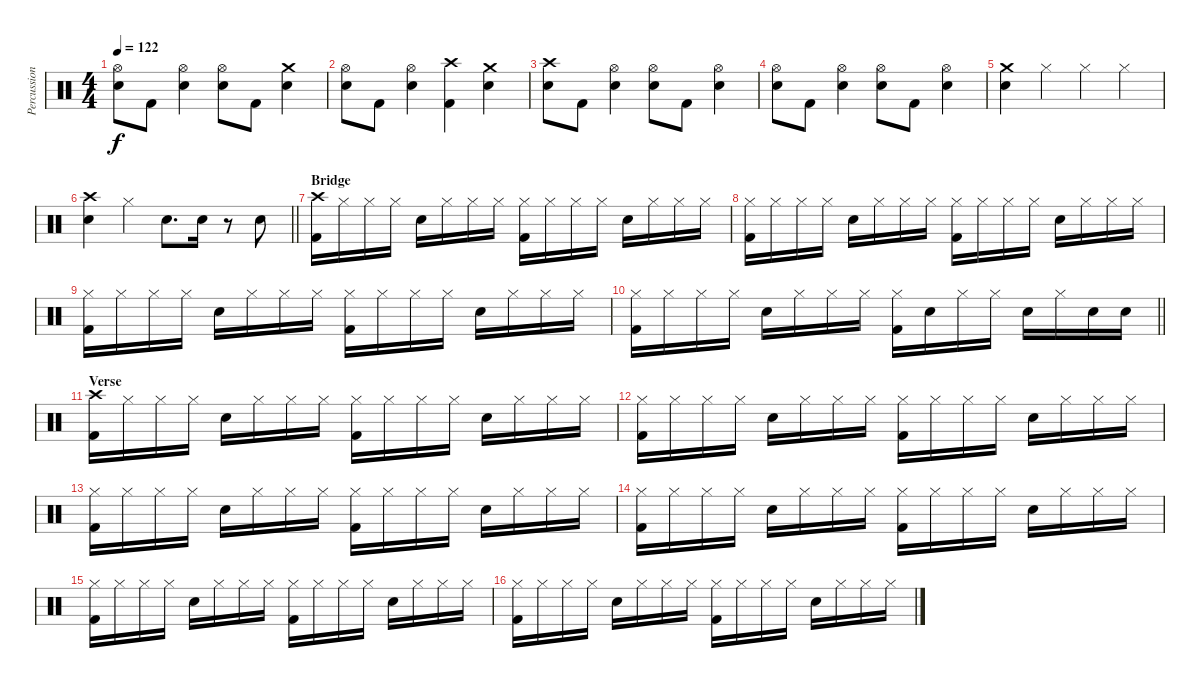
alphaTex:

\track ("Percussion" "Percussion") {instrument percussion}
\staff {score}
\articulation defaults
\ts (4 4)
\tempo 122
\clef neutral
\ks c
("Hi-Hat (open)" "Electric Snare (hit)").8{dy f} "Kick (hit) 2".8 ("Hi-Hat (open)" "Electric Snare (hit)").4 ("Hi-Hat (open)" "Electric Snare (hit)").8 "Kick (hit) 2".8 ("Crash medium (hit)" "Electric Snare (hit)").4 |
("Hi-Hat (open)" "Electric Snare (hit)").8 "Kick (hit) 2".8 ("Hi-Hat (open)" "Electric Snare (hit)").4 ("Crash high (hit)" "Kick (hit) 2").4 ("Crash medium (hit)" "Electric Snare (hit)").4 |
("Crash high (hit)" "Electric Snare (hit)").8 "Kick (hit) 2".8 ("Hi-Hat (open)" "Electric Snare (hit)").4 ("Hi-Hat (open)" "Electric Snare (hit)").8 "Kick (hit) 2".8 ("Hi-Hat (open)" "Electric Snare (hit)").4 |
("Hi-Hat (open)" "Electric Snare (hit)").8 "Kick (hit) 2".8 ("Hi-Hat (open)" "Electric Snare (hit)").4 ("Hi-Hat (open)" "Electric Snare (hit)").8 "Kick (hit) 2".8 ("Hi-Hat (open)" "Electric Snare (hit)").4 |
("Crash medium (hit)" "Electric Snare (hit)").4 "Hi-Hat (closed)".4 "Hi-Hat (closed)".4 "Hi-Hat (closed)".4 |
\barLineRight lightlight
("Crash high (hit)" "Electric Snare (hit)").4 "Hi-Hat (closed)".4 "Electric Snare (hit)".8{d} "Electric Snare (hit)".16 r.8 "Electric Snare (hit)".8 |
\section ("" "Bridge")
("Crash high (hit)" "Kick (hit) 2").16 "Hi-Hat (closed)".16 "Hi-Hat (closed)".16 "Hi-Hat (closed)".16 "Electric Snare (hit)".16 "Hi-Hat (closed)".16 "Hi-Hat (closed)".16 "Hi-Hat (closed)".16 ("Hi-Hat (closed)" "Kick (hit) 2").16 "Hi-Hat (closed)".16 "Hi-Hat (closed)".16 "Hi-Hat (closed)".16 "Electric Snare (hit)".16 "Hi-Hat (closed)".16 "Hi-Hat (closed)".16 "Hi-Hat (closed)".16 |
("Hi-Hat (closed)" "Kick (hit) 2").16 "Hi-Hat (closed)".16 "Hi-Hat (closed)".16 "Hi-Hat (closed)".16 "Electric Snare (hit)".16 "Hi-Hat (closed)".16 "Hi-Hat (closed)".16 "Hi-Hat (closed)".16 ("Hi-Hat (closed)" "Kick (hit) 2").16 "Hi-Hat (closed)".16 "Hi-Hat (closed)".16 "Hi-Hat (closed)".16 "Electric Snare (hit)".16 "Hi-Hat (closed)".16 "Hi-Hat (closed)".16 "Hi-Hat (closed)".16 |
("Hi-Hat (closed)" "Kick (hit) 2").16 "Hi-Hat (closed)".16 "Hi-Hat (closed)".16 "Hi-Hat (closed)".16 "Electric Snare (hit)".16 "Hi-Hat (closed)".16 "Hi-Hat (closed)".16 "Hi-Hat (closed)".16 ("Hi-Hat (closed)" "Kick (hit) 2").16 "Hi-Hat (closed)".16 "Hi-Hat (closed)".16 "Hi-Hat (closed)".16 "Electric Snare (hit)".16 "Hi-Hat (closed)".16 "Hi-Hat (closed)".16 "Hi-Hat (closed)".16 |
\barLineRight lightlight
("Hi-Hat (closed)" "Kick (hit) 2").16 "Hi-Hat (closed)".16 "Hi-Hat (closed)".16 "Hi-Hat (closed)".16 "Electric Snare (hit)".16 "Hi-Hat (closed)".16 "Hi-Hat (closed)".16 "Hi-Hat (closed)".16 ("Hi-Hat (closed)" "Kick (hit) 2").16 "Electric Snare (hit)".16 "Hi-Hat (closed)".16 "Hi-Hat (closed)".16 "Electric Snare (hit)".16 "Hi-Hat (closed)".16 "Electric Snare (hit)".16 "Electric Snare (hit)".16 |
\section ("" "Verse")
("Crash high (hit)" "Kick (hit) 2").16 "Hi-Hat (closed)".16 "Hi-Hat (closed)".16 "Hi-Hat (closed)".16 "Electric Snare (hit)".16 "Hi-Hat (closed)".16 "Hi-Hat (closed)".16 "Hi-Hat (closed)".16 ("Hi-Hat (closed)" "Kick (hit) 2").16 "Hi-Hat (closed)".16 "Hi-Hat (closed)".16 "Hi-Hat (closed)".16 "Electric Snare (hit)".16 "Hi-Hat (closed)".16 "Hi-Hat (closed)".16 "Hi-Hat (closed)".16 |
("Hi-Hat (closed)" "Kick (hit) 2").16 "Hi-Hat (closed)".16 "Hi-Hat (closed)".16 "Hi-Hat (closed)".16 "Electric Snare (hit)".16 "Hi-Hat (closed)".16 "Hi-Hat (closed)".16 "Hi-Hat (closed)".16 ("Hi-Hat (closed)" "Kick (hit) 2").16 "Hi-Hat (closed)".16 "Hi-Hat (closed)".16 "Hi-Hat (closed)".16 "Electric Snare (hit)".16 "Hi-Hat (closed)".16 "Hi-Hat (closed)".16 "Hi-Hat (closed)".16 |
("Hi-Hat (closed)" "Kick (hit) 2").16 "Hi-Hat (closed)".16 "Hi-Hat (closed)".16 "Hi-Hat (closed)".16 "Electric Snare (hit)".16 "Hi-Hat (closed)".16 "Hi-Hat (closed)".16 "Hi-Hat (closed)".16 ("Hi-Hat (closed)" "Kick (hit) 2").16 "Hi-Hat (closed)".16 "Hi-Hat (closed)".16 "Hi-Hat (closed)".16 "Electric Snare (hit)".16 "Hi-Hat (closed)".16 "Hi-Hat (closed)".16 "Hi-Hat (closed)".16 |
("Hi-Hat (closed)" "Kick (hit) 2").16 "Hi-Hat (closed)".16 "Hi-Hat (closed)".16 "Hi-Hat (closed)".16 "Electric Snare (hit)".16 "Hi-Hat (closed)".16 "Hi-Hat (closed)".16 "Hi-Hat (closed)".16 ("Hi-Hat (closed)" "Kick (hit) 2").16 "Hi-Hat (closed)".16 "Hi-Hat (closed)".16 "Hi-Hat (closed)".16 "Electric Snare (hit)".16 "Hi-Hat (closed)".16 "Hi-Hat (closed)".16 "Hi-Hat (closed)".16 |
("Hi-Hat (closed)" "Kick (hit) 2").16 "Hi-Hat (closed)".16 "Hi-Hat (closed)".16 "Hi-Hat (closed)".16 "Electric Snare (hit)".16 "Hi-Hat (closed)".16 "Hi-Hat (closed)".16 "Hi-Hat (closed)".16 ("Hi-Hat (closed)" "Kick (hit) 2").16 "Hi-Hat (closed)".16 "Hi-Hat (closed)".16 "Hi-Hat (closed)".16 "Electric Snare (hit)".16 "Hi-Hat (closed)".16 "Hi-Hat (closed)".16 "Hi-Hat (closed)".16 |
("Hi-Hat (closed)" "Kick (hit) 2").16 "Hi-Hat (closed)".16 "Hi-Hat (closed)".16 "Hi-Hat (closed)".16 "Electric Snare (hit)".16 "Hi-Hat (closed)".16 "Hi-Hat (closed)".16 "Hi-Hat (closed)".16 ("Hi-Hat (closed)" "Kick (hit) 2").16 "Hi-Hat (closed)".16 "Hi-Hat (closed)".16 "Hi-Hat (closed)".16 "Electric Snare (hit)".16 "Hi-Hat (closed)".16 "Hi-Hat (closed)".16 "Hi-Hat (closed)".16
